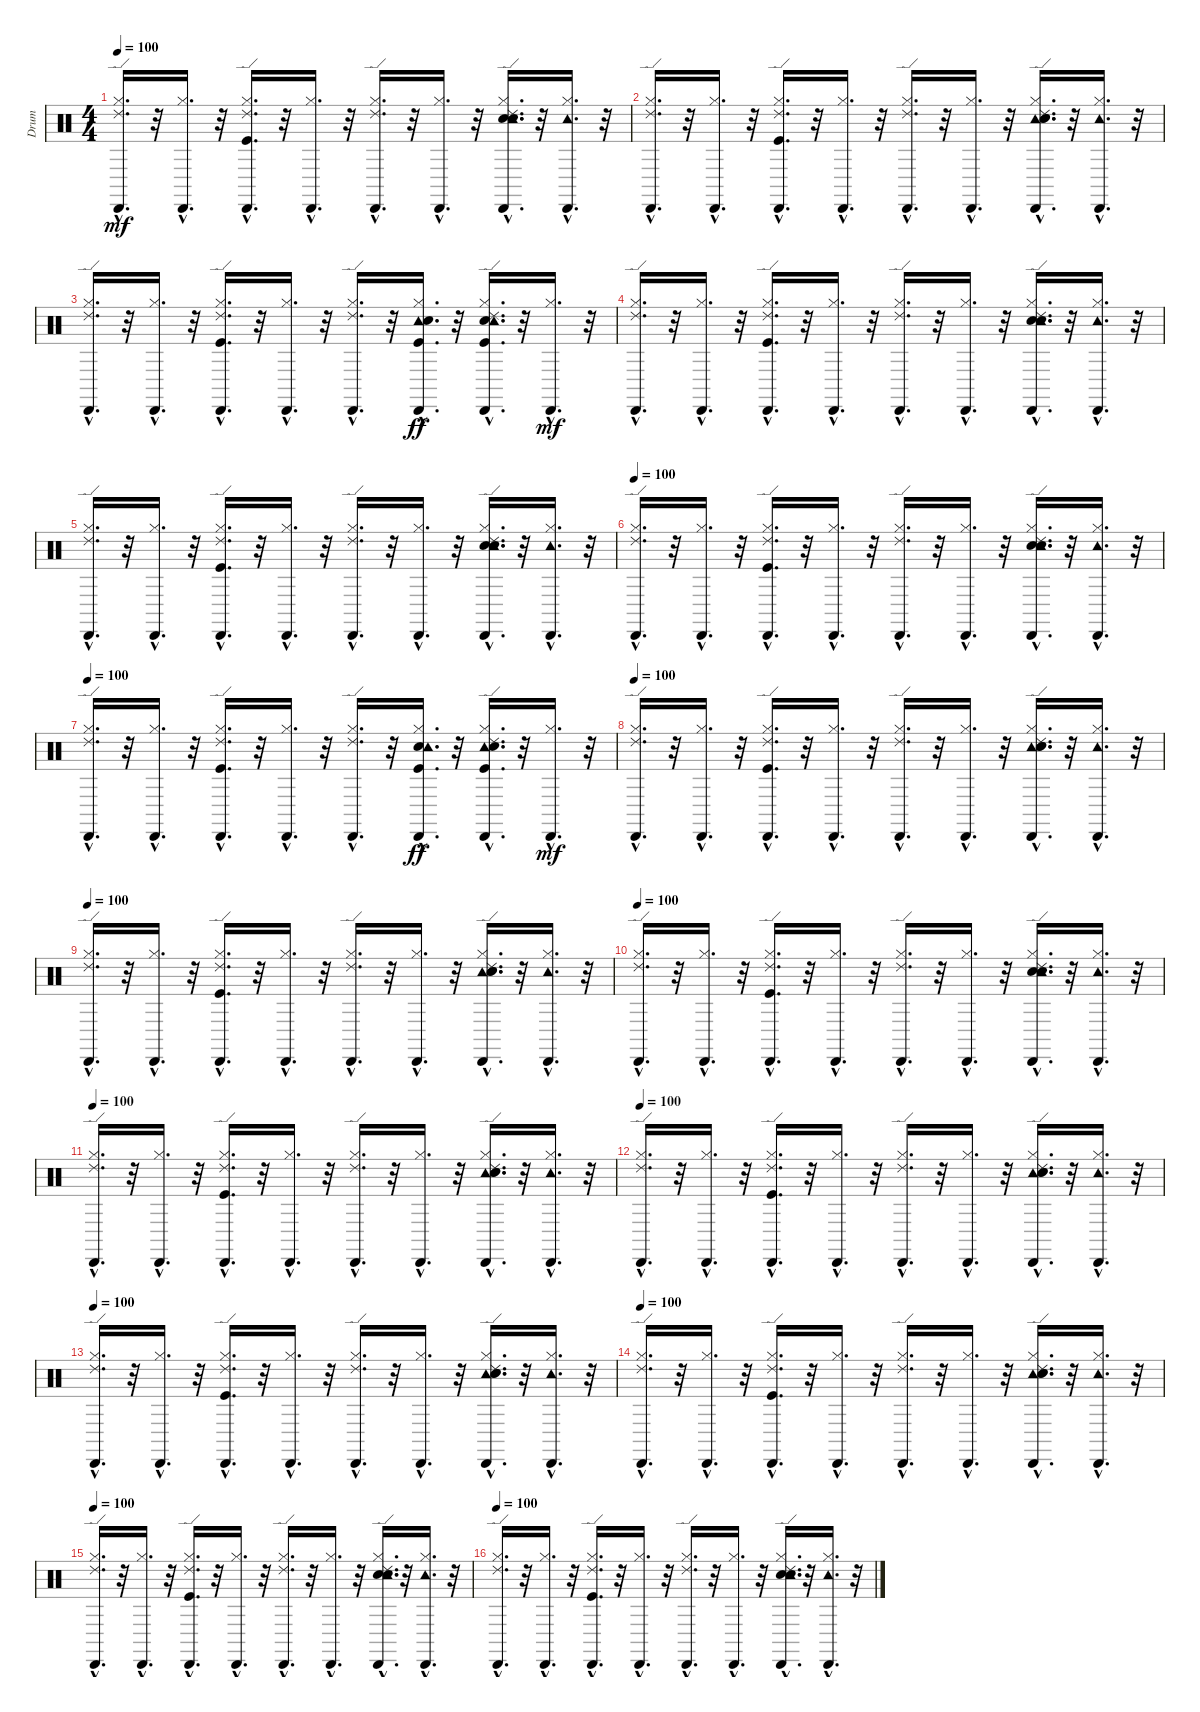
\track ("Drum" "Drum") {instrument percussion}
\staff {score}
\articulation defaults
\ts (4 4)
\tempo 100
\clef neutral
\ks c
("Ride (edge) 2"{hac} "Cabasa (hit)"{hac} "Hi-Hat (closed)"{hac}).16{d dy mf} r.32 ("Cabasa (hit)"{hac} "Hi-Hat (closed)"{hac}).16{d} r.32 ("Ride (edge) 2"{hac} "Cabasa (hit)"{hac} "Kick (hit)"{hac} "Hi-Hat (closed)"{hac}).16{d} r.32 ("Cabasa (hit)"{hac} "Hi-Hat (closed)"{hac}).16{d} r.32 ("Ride (edge) 2"{hac} "Cabasa (hit)"{hac} "Hi-Hat (closed)"{hac}).16{d} r.32 ("Cabasa (hit)"{hac} "Hi-Hat (closed)"{hac}).16{d} r.32 ("Electric Snare (hit)"{hac} "Ride (edge) 2"{hac} "Cabasa (hit)"{hac} "Snare (hit) 2"{hac} "Tambourine (hit)"{hac} "Hi-Hat (closed)"{hac}).16{d} r.32 ("Cabasa (hit)"{hac} "Tambourine (hit)"{hac} "Hi-Hat (closed)"{hac}).16{d} r.32 |
("Hi-Hat (closed)"{hac} "Cabasa (hit)"{hac} "Ride (edge) 2"{hac}).16{d} r.32 ("Hi-Hat (closed)"{hac} "Cabasa (hit)"{hac}).16{d} r.32 ("Hi-Hat (closed)"{hac} "Kick (hit)"{hac} "Cabasa (hit)"{hac} "Ride (edge) 2"{hac}).16{d} r.32 ("Hi-Hat (closed)"{hac} "Cabasa (hit)"{hac}).16{d} r.32 ("Hi-Hat (closed)"{hac} "Cabasa (hit)"{hac} "Ride (edge) 2"{hac}).16{d} r.32 ("Hi-Hat (closed)"{hac} "Cabasa (hit)"{hac}).16{d} r.32 ("Hi-Hat (closed)"{hac} "Tambourine (hit)"{hac} "Snare (hit) 2"{hac} "Cabasa (hit)"{hac} "Ride (edge) 2"{hac} "Electric Snare (hit)"{hac}).16{d} r.32 ("Hi-Hat (closed)"{hac} "Tambourine (hit)"{hac} "Cabasa (hit)"{hac}).16{d} r.32 |
("Ride (edge) 2"{hac} "Cabasa (hit)"{hac} "Hi-Hat (closed)"{hac}).16{d} r.32 ("Cabasa (hit)"{hac} "Hi-Hat (closed)"{hac}).16{d} r.32 ("Ride (edge) 2"{hac} "Cabasa (hit)"{hac} "Kick (hit)"{hac} "Hi-Hat (closed)"{hac}).16{d} r.32 ("Cabasa (hit)"{hac} "Hi-Hat (closed)"{hac}).16{d} r.32 ("Ride (edge) 2"{hac} "Cabasa (hit)"{hac} "Hi-Hat (closed)"{hac}).16{d} r.32 ("Tambourine (hit)"{hac} "Kick (hit)"{hac} "Snare (hit) 2"{hac} "Cabasa (hit)"{hac} "Hi-Hat (closed)"{hac}).16{d dy ff} r.32 ("Kick (hit)"{hac} "Ride (edge) 2"{hac} "Cabasa (hit)"{hac} "Snare (hit) 2"{hac} "Tambourine (hit)"{hac} "Hi-Hat (closed)"{hac}).16{d} r.32 ("Cabasa (hit)"{hac} "Hi-Hat (closed)"{hac}).16{d dy mf} r.32 |
("Ride (edge) 2"{hac} "Cabasa (hit)"{hac} "Hi-Hat (closed)"{hac}).16{d} r.32 ("Cabasa (hit)"{hac} "Hi-Hat (closed)"{hac}).16{d} r.32 ("Ride (edge) 2"{hac} "Cabasa (hit)"{hac} "Kick (hit)"{hac} "Hi-Hat (closed)"{hac}).16{d} r.32 ("Cabasa (hit)"{hac} "Hi-Hat (closed)"{hac}).16{d} r.32 ("Ride (edge) 2"{hac} "Cabasa (hit)"{hac} "Hi-Hat (closed)"{hac}).16{d} r.32 ("Cabasa (hit)"{hac} "Hi-Hat (closed)"{hac}).16{d} r.32 ("Electric Snare (hit)"{hac} "Ride (edge) 2"{hac} "Cabasa (hit)"{hac} "Snare (hit) 2"{hac} "Tambourine (hit)"{hac} "Hi-Hat (closed)"{hac}).16{d} r.32 ("Cabasa (hit)"{hac} "Tambourine (hit)"{hac} "Hi-Hat (closed)"{hac}).16{d} r.32 |
("Ride (edge) 2"{hac} "Cabasa (hit)"{hac} "Hi-Hat (closed)"{hac}).16{d} r.32 ("Cabasa (hit)"{hac} "Hi-Hat (closed)"{hac}).16{d} r.32 ("Ride (edge) 2"{hac} "Cabasa (hit)"{hac} "Kick (hit)"{hac} "Hi-Hat (closed)"{hac}).16{d} r.32 ("Cabasa (hit)"{hac} "Hi-Hat (closed)"{hac}).16{d} r.32 ("Ride (edge) 2"{hac} "Cabasa (hit)"{hac} "Hi-Hat (closed)"{hac}).16{d} r.32 ("Cabasa (hit)"{hac} "Hi-Hat (closed)"{hac}).16{d} r.32 ("Electric Snare (hit)"{hac} "Ride (edge) 2"{hac} "Cabasa (hit)"{hac} "Snare (hit) 2"{hac} "Tambourine (hit)"{hac} "Hi-Hat (closed)"{hac}).16{d} r.32 ("Cabasa (hit)"{hac} "Tambourine (hit)"{hac} "Hi-Hat (closed)"{hac}).16{d} r.32 |
\tempo 100
("Ride (edge) 2"{hac} "Cabasa (hit)"{hac} "Hi-Hat (closed)"{hac}).16{d} r.32 ("Cabasa (hit)"{hac} "Hi-Hat (closed)"{hac}).16{d} r.32 ("Ride (edge) 2"{hac} "Cabasa (hit)"{hac} "Kick (hit)"{hac} "Hi-Hat (closed)"{hac}).16{d} r.32 ("Cabasa (hit)"{hac} "Hi-Hat (closed)"{hac}).16{d} r.32 ("Ride (edge) 2"{hac} "Cabasa (hit)"{hac} "Hi-Hat (closed)"{hac}).16{d} r.32 ("Cabasa (hit)"{hac} "Hi-Hat (closed)"{hac}).16{d} r.32 ("Electric Snare (hit)"{hac} "Ride (edge) 2"{hac} "Cabasa (hit)"{hac} "Snare (hit) 2"{hac} "Tambourine (hit)"{hac} "Hi-Hat (closed)"{hac}).16{d} r.32 ("Cabasa (hit)"{hac} "Tambourine (hit)"{hac} "Hi-Hat (closed)"{hac}).16{d} r.32 |
\tempo 100
("Hi-Hat (closed)"{hac} "Cabasa (hit)"{hac} "Ride (edge) 2"{hac}).16{d} r.32 ("Hi-Hat (closed)"{hac} "Cabasa (hit)"{hac}).16{d} r.32 ("Hi-Hat (closed)"{hac} "Kick (hit)"{hac} "Cabasa (hit)"{hac} "Ride (edge) 2"{hac}).16{d} r.32 ("Hi-Hat (closed)"{hac} "Cabasa (hit)"{hac}).16{d} r.32 ("Hi-Hat (closed)"{hac} "Cabasa (hit)"{hac} "Ride (edge) 2"{hac}).16{d} r.32 ("Hi-Hat (closed)"{hac} "Cabasa (hit)"{hac} "Snare (hit) 2"{hac} "Kick (hit)"{hac} "Tambourine (hit)"{hac}).16{d dy ff} r.32 ("Hi-Hat (closed)"{hac} "Tambourine (hit)"{hac} "Snare (hit) 2"{hac} "Cabasa (hit)"{hac} "Ride (edge) 2"{hac} "Kick (hit)"{hac}).16{d} r.32 ("Hi-Hat (closed)"{hac} "Cabasa (hit)"{hac}).16{d dy mf} r.32 |
\tempo 100
("Hi-Hat (closed)"{hac} "Cabasa (hit)"{hac} "Ride (edge) 2"{hac}).16{d} r.32 ("Hi-Hat (closed)"{hac} "Cabasa (hit)"{hac}).16{d} r.32 ("Hi-Hat (closed)"{hac} "Kick (hit)"{hac} "Cabasa (hit)"{hac} "Ride (edge) 2"{hac}).16{d} r.32 ("Hi-Hat (closed)"{hac} "Cabasa (hit)"{hac}).16{d} r.32 ("Hi-Hat (closed)"{hac} "Cabasa (hit)"{hac} "Ride (edge) 2"{hac}).16{d} r.32 ("Hi-Hat (closed)"{hac} "Cabasa (hit)"{hac}).16{d} r.32 ("Hi-Hat (closed)"{hac} "Tambourine (hit)"{hac} "Snare (hit) 2"{hac} "Cabasa (hit)"{hac} "Ride (edge) 2"{hac} "Electric Snare (hit)"{hac}).16{d} r.32 ("Hi-Hat (closed)"{hac} "Tambourine (hit)"{hac} "Cabasa (hit)"{hac}).16{d} r.32 |
\tempo 100
("Hi-Hat (closed)"{hac} "Cabasa (hit)"{hac} "Ride (edge) 2"{hac}).16{d} r.32 ("Hi-Hat (closed)"{hac} "Cabasa (hit)"{hac}).16{d} r.32 ("Hi-Hat (closed)"{hac} "Kick (hit)"{hac} "Cabasa (hit)"{hac} "Ride (edge) 2"{hac}).16{d} r.32 ("Hi-Hat (closed)"{hac} "Cabasa (hit)"{hac}).16{d} r.32 ("Hi-Hat (closed)"{hac} "Cabasa (hit)"{hac} "Ride (edge) 2"{hac}).16{d} r.32 ("Hi-Hat (closed)"{hac} "Cabasa (hit)"{hac}).16{d} r.32 ("Hi-Hat (closed)"{hac} "Tambourine (hit)"{hac} "Snare (hit) 2"{hac} "Cabasa (hit)"{hac} "Ride (edge) 2"{hac} "Electric Snare (hit)"{hac}).16{d} r.32 ("Hi-Hat (closed)"{hac} "Tambourine (hit)"{hac} "Cabasa (hit)"{hac}).16{d} r.32 |
\tempo 100
("Ride (edge) 2"{hac} "Cabasa (hit)"{hac} "Hi-Hat (closed)"{hac}).16{d} r.32 ("Cabasa (hit)"{hac} "Hi-Hat (closed)"{hac}).16{d} r.32 ("Ride (edge) 2"{hac} "Cabasa (hit)"{hac} "Kick (hit)"{hac} "Hi-Hat (closed)"{hac}).16{d} r.32 ("Cabasa (hit)"{hac} "Hi-Hat (closed)"{hac}).16{d} r.32 ("Ride (edge) 2"{hac} "Cabasa (hit)"{hac} "Hi-Hat (closed)"{hac}).16{d} r.32 ("Cabasa (hit)"{hac} "Hi-Hat (closed)"{hac}).16{d} r.32 ("Electric Snare (hit)"{hac} "Ride (edge) 2"{hac} "Cabasa (hit)"{hac} "Snare (hit) 2"{hac} "Tambourine (hit)"{hac} "Hi-Hat (closed)"{hac}).16{d} r.32 ("Cabasa (hit)"{hac} "Tambourine (hit)"{hac} "Hi-Hat (closed)"{hac}).16{d} r.32 |
\tempo 100
("Hi-Hat (closed)"{hac} "Cabasa (hit)"{hac} "Ride (edge) 2"{hac}).16{d} r.32 ("Hi-Hat (closed)"{hac} "Cabasa (hit)"{hac}).16{d} r.32 ("Hi-Hat (closed)"{hac} "Kick (hit)"{hac} "Cabasa (hit)"{hac} "Ride (edge) 2"{hac}).16{d} r.32 ("Hi-Hat (closed)"{hac} "Cabasa (hit)"{hac}).16{d} r.32 ("Hi-Hat (closed)"{hac} "Cabasa (hit)"{hac} "Ride (edge) 2"{hac}).16{d} r.32 ("Hi-Hat (closed)"{hac} "Cabasa (hit)"{hac}).16{d} r.32 ("Hi-Hat (closed)"{hac} "Tambourine (hit)"{hac} "Snare (hit) 2"{hac} "Cabasa (hit)"{hac} "Ride (edge) 2"{hac} "Electric Snare (hit)"{hac}).16{d} r.32 ("Hi-Hat (closed)"{hac} "Tambourine (hit)"{hac} "Cabasa (hit)"{hac}).16{d} r.32 |
\tempo 100
("Hi-Hat (closed)"{hac} "Cabasa (hit)"{hac} "Ride (edge) 2"{hac}).16{d} r.32 ("Hi-Hat (closed)"{hac} "Cabasa (hit)"{hac}).16{d} r.32 ("Hi-Hat (closed)"{hac} "Kick (hit)"{hac} "Cabasa (hit)"{hac} "Ride (edge) 2"{hac}).16{d} r.32 ("Hi-Hat (closed)"{hac} "Cabasa (hit)"{hac}).16{d} r.32 ("Hi-Hat (closed)"{hac} "Cabasa (hit)"{hac} "Ride (edge) 2"{hac}).16{d} r.32 ("Hi-Hat (closed)"{hac} "Cabasa (hit)"{hac}).16{d} r.32 ("Hi-Hat (closed)"{hac} "Tambourine (hit)"{hac} "Snare (hit) 2"{hac} "Cabasa (hit)"{hac} "Ride (edge) 2"{hac} "Electric Snare (hit)"{hac}).16{d} r.32 ("Hi-Hat (closed)"{hac} "Tambourine (hit)"{hac} "Cabasa (hit)"{hac}).16{d} r.32 |
\tempo 100
("Hi-Hat (closed)"{hac} "Cabasa (hit)"{hac} "Ride (edge) 2"{hac}).16{d} r.32 ("Hi-Hat (closed)"{hac} "Cabasa (hit)"{hac}).16{d} r.32 ("Hi-Hat (closed)"{hac} "Kick (hit)"{hac} "Cabasa (hit)"{hac} "Ride (edge) 2"{hac}).16{d} r.32 ("Hi-Hat (closed)"{hac} "Cabasa (hit)"{hac}).16{d} r.32 ("Hi-Hat (closed)"{hac} "Cabasa (hit)"{hac} "Ride (edge) 2"{hac}).16{d} r.32 ("Hi-Hat (closed)"{hac} "Cabasa (hit)"{hac}).16{d} r.32 ("Hi-Hat (closed)"{hac} "Tambourine (hit)"{hac} "Snare (hit) 2"{hac} "Cabasa (hit)"{hac} "Ride (edge) 2"{hac} "Electric Snare (hit)"{hac}).16{d} r.32 ("Hi-Hat (closed)"{hac} "Tambourine (hit)"{hac} "Cabasa (hit)"{hac}).16{d} r.32 |
\tempo 100
("Hi-Hat (closed)"{hac} "Cabasa (hit)"{hac} "Ride (edge) 2"{hac}).16{d} r.32 ("Hi-Hat (closed)"{hac} "Cabasa (hit)"{hac}).16{d} r.32 ("Hi-Hat (closed)"{hac} "Kick (hit)"{hac} "Cabasa (hit)"{hac} "Ride (edge) 2"{hac}).16{d} r.32 ("Hi-Hat (closed)"{hac} "Cabasa (hit)"{hac}).16{d} r.32 ("Hi-Hat (closed)"{hac} "Cabasa (hit)"{hac} "Ride (edge) 2"{hac}).16{d} r.32 ("Hi-Hat (closed)"{hac} "Cabasa (hit)"{hac}).16{d} r.32 ("Hi-Hat (closed)"{hac} "Tambourine (hit)"{hac} "Snare (hit) 2"{hac} "Cabasa (hit)"{hac} "Ride (edge) 2"{hac} "Electric Snare (hit)"{hac}).16{d} r.32 ("Hi-Hat (closed)"{hac} "Tambourine (hit)"{hac} "Cabasa (hit)"{hac}).16{d} r.32 |
\tempo 100
("Ride (edge) 2"{hac} "Cabasa (hit)"{hac} "Hi-Hat (closed)"{hac}).16{d} r.32 ("Cabasa (hit)"{hac} "Hi-Hat (closed)"{hac}).16{d} r.32 ("Ride (edge) 2"{hac} "Cabasa (hit)"{hac} "Kick (hit)"{hac} "Hi-Hat (closed)"{hac}).16{d} r.32 ("Cabasa (hit)"{hac} "Hi-Hat (closed)"{hac}).16{d} r.32 ("Ride (edge) 2"{hac} "Cabasa (hit)"{hac} "Hi-Hat (closed)"{hac}).16{d} r.32 ("Cabasa (hit)"{hac} "Hi-Hat (closed)"{hac}).16{d} r.32 ("Electric Snare (hit)"{hac} "Ride (edge) 2"{hac} "Cabasa (hit)"{hac} "Snare (hit) 2"{hac} "Tambourine (hit)"{hac} "Hi-Hat (closed)"{hac}).16{d} r.32 ("Cabasa (hit)"{hac} "Tambourine (hit)"{hac} "Hi-Hat (closed)"{hac}).16{d} r.32 |
\tempo 100
("Ride (edge) 2"{hac} "Cabasa (hit)"{hac} "Hi-Hat (closed)"{hac}).16{d} r.32 ("Cabasa (hit)"{hac} "Hi-Hat (closed)"{hac}).16{d} r.32 ("Ride (edge) 2"{hac} "Cabasa (hit)"{hac} "Kick (hit)"{hac} "Hi-Hat (closed)"{hac}).16{d} r.32 ("Cabasa (hit)"{hac} "Hi-Hat (closed)"{hac}).16{d} r.32 ("Ride (edge) 2"{hac} "Cabasa (hit)"{hac} "Hi-Hat (closed)"{hac}).16{d} r.32 ("Cabasa (hit)"{hac} "Hi-Hat (closed)"{hac}).16{d} r.32 ("Electric Snare (hit)"{hac} "Ride (edge) 2"{hac} "Cabasa (hit)"{hac} "Snare (hit) 2"{hac} "Tambourine (hit)"{hac} "Hi-Hat (closed)"{hac}).16{d} r.32 ("Cabasa (hit)"{hac} "Tambourine (hit)"{hac} "Hi-Hat (closed)"{hac}).16{d} r.32
